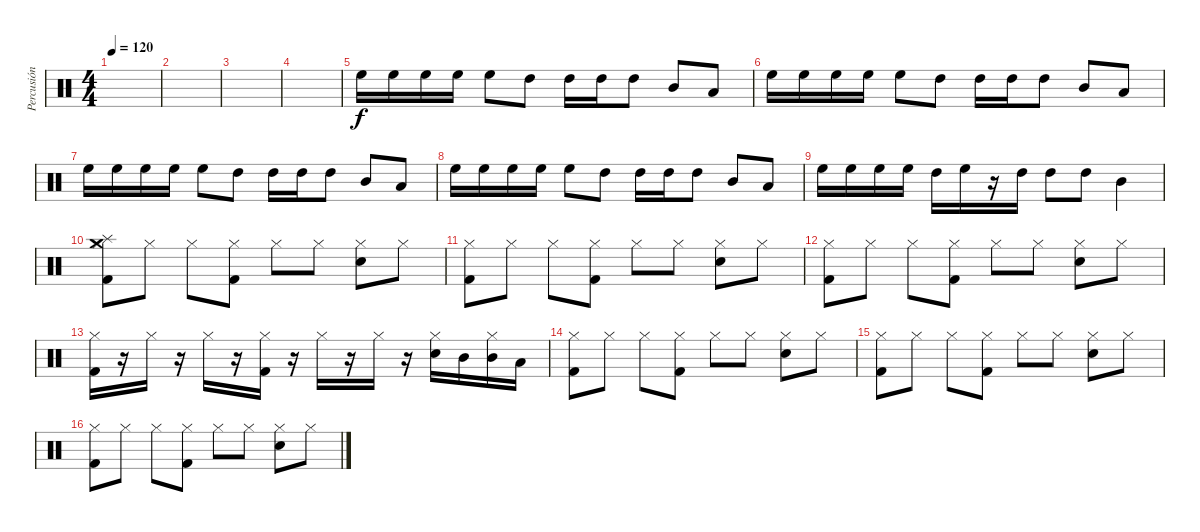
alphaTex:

\track ("Percusión" "Percusión") {instrument percussion}
\staff {score}
\articulation defaults
\ts (4 4)
\tempo 120
\clef neutral
\ks c
|
|
|
|
"High Floor Tom (hit)".16 "High Floor Tom (hit)".16 "High Floor Tom (hit)".16 "High Floor Tom (hit)".16 "High Floor Tom (hit)".8 "High Tom (hit)".8 "High Tom (hit)".16 "High Tom (hit)".16 "High Tom (hit)".8 "Mid Tom (hit)".8 "Low Tom (hit)".8 |
"High Floor Tom (hit)".16 "High Floor Tom (hit)".16 "High Floor Tom (hit)".16 "High Floor Tom (hit)".16 "High Floor Tom (hit)".8 "High Tom (hit)".8 "High Tom (hit)".16 "High Tom (hit)".16 "High Tom (hit)".8 "Mid Tom (hit)".8 "Low Tom (hit)".8 |
"High Floor Tom (hit)".16 "High Floor Tom (hit)".16 "High Floor Tom (hit)".16 "High Floor Tom (hit)".16 "High Floor Tom (hit)".8 "High Tom (hit)".8 "High Tom (hit)".16 "High Tom (hit)".16 "High Tom (hit)".8 "Mid Tom (hit)".8 "Low Tom (hit)".8 |
"High Floor Tom (hit)".16 "High Floor Tom (hit)".16 "High Floor Tom (hit)".16 "High Floor Tom (hit)".16 "High Floor Tom (hit)".8 "High Tom (hit)".8 "High Tom (hit)".16 "High Tom (hit)".16 "High Tom (hit)".8 "Mid Tom (hit)".8 "Low Tom (hit)".8 |
"High Floor Tom (hit)".16 "High Floor Tom (hit)".16 "High Floor Tom (hit)".16 "High Floor Tom (hit)".16 "High Tom (hit)".16 "High Floor Tom (hit)".16 r.16 "High Tom (hit)".16 "High Tom (hit)".8 "High Tom (hit)".8 "Mid Tom (hit)".4 |
("Splash (hit)" "Crash medium (hit)" "Kick (hit) 2" "Hi-Hat (closed)").8 "Hi-Hat (closed)".8 "Hi-Hat (closed)".8 ("Kick (hit) 2" "Hi-Hat (closed)").8 "Hi-Hat (closed)".8 "Hi-Hat (closed)".8 ("Snare (hit) 2" "Hi-Hat (closed)").8 "Hi-Hat (closed)".8 |
("Kick (hit) 2" "Hi-Hat (closed)").8 "Hi-Hat (closed)".8 "Hi-Hat (closed)".8 ("Kick (hit) 2" "Hi-Hat (closed)").8 "Hi-Hat (closed)".8 "Hi-Hat (closed)".8 ("Snare (hit) 2" "Hi-Hat (closed)").8 "Hi-Hat (closed)".8 |
("Kick (hit) 2" "Hi-Hat (closed)").8 "Hi-Hat (closed)".8 "Hi-Hat (closed)".8 ("Kick (hit) 2" "Hi-Hat (closed)").8 "Hi-Hat (closed)".8 "Hi-Hat (closed)".8 ("Snare (hit) 2" "Hi-Hat (closed)").8 "Hi-Hat (closed)".8 |
("Kick (hit) 2" "Hi-Hat (closed)").16 r.16 "Hi-Hat (closed)".16 r.16 "Hi-Hat (closed)".16 r.16 ("Kick (hit) 2" "Hi-Hat (closed)").16 r.16 "Hi-Hat (closed)".16 r.16 "Hi-Hat (closed)".16 r.16 ("Snare (hit) 2" "Hi-Hat (closed)").16 "Mid Tom (hit)".16 ("Mid Tom (hit)" "Hi-Hat (closed)").16 "Low Tom (hit)".16 |
("Kick (hit) 2" "Hi-Hat (closed)").8 "Hi-Hat (closed)".8 "Hi-Hat (closed)".8 ("Kick (hit) 2" "Hi-Hat (closed)").8 "Hi-Hat (closed)".8 "Hi-Hat (closed)".8 ("Snare (hit) 2" "Hi-Hat (closed)").8 "Hi-Hat (closed)".8 |
("Kick (hit) 2" "Hi-Hat (closed)").8 "Hi-Hat (closed)".8 "Hi-Hat (closed)".8 ("Kick (hit) 2" "Hi-Hat (closed)").8 "Hi-Hat (closed)".8 "Hi-Hat (closed)".8 ("Snare (hit) 2" "Hi-Hat (closed)").8 "Hi-Hat (closed)".8 |
("Kick (hit) 2" "Hi-Hat (closed)").8 "Hi-Hat (closed)".8 "Hi-Hat (closed)".8 ("Kick (hit) 2" "Hi-Hat (closed)").8 "Hi-Hat (closed)".8 "Hi-Hat (closed)".8 ("Snare (hit) 2" "Hi-Hat (closed)").8 "Hi-Hat (closed)".8
